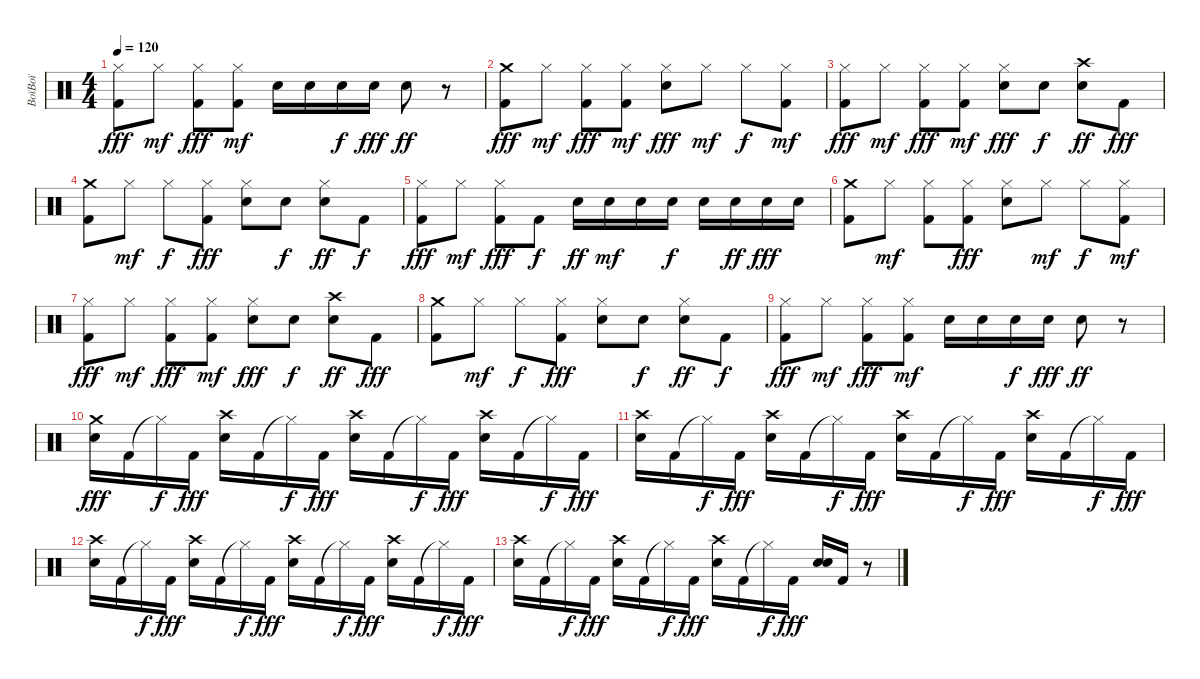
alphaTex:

\track ("BoïBoï" "BoïBoï") {instrument percussion}
\staff {score}
\articulation defaults
\ts (4 4)
\tempo 120
\clef neutral
\ks c
("Hi-Hat (closed)" "Kick (hit) 2").8{dy fff} "Hi-Hat (closed)".8{dy mf} ("Hi-Hat (closed)" "Kick (hit) 2").8{dy fff} ("Hi-Hat (closed)" "Kick (hit) 2").8{dy mf} "Electric Snare (hit)".16 "Electric Snare (hit)".16 "Electric Snare (hit)".16{dy f} "Electric Snare (hit)".16{dy fff} "Electric Snare (hit)".8{dy ff} r.8 |
("Crash medium (hit)" "Kick (hit) 2").8{dy fff} "Hi-Hat (closed)".8{dy mf} ("Hi-Hat (closed)" "Kick (hit) 2").8{dy fff} ("Hi-Hat (closed)" "Kick (hit) 2").8{dy mf} ("Hi-Hat (closed)" "Electric Snare (hit)").8{dy fff} "Hi-Hat (closed)".8{dy mf} "Hi-Hat (closed)".8{dy f} ("Hi-Hat (closed)" "Kick (hit) 2").8{dy mf} |
("Hi-Hat (closed)" "Kick (hit) 2").8{dy fff} "Hi-Hat (closed)".8{dy mf} ("Hi-Hat (closed)" "Kick (hit) 2").8{dy fff} ("Hi-Hat (closed)" "Kick (hit) 2").8{dy mf} ("Hi-Hat (closed)" "Electric Snare (hit)").8{dy fff} "Electric Snare (hit)".8{dy f} ("Crash high (hit)" "Electric Snare (hit)").8{dy ff} "Kick (hit) 2".8{dy fff} |
("Crash medium (hit)" "Kick (hit) 2").8 "Hi-Hat (closed)".8{dy mf} "Hi-Hat (closed)".8{dy f} ("Hi-Hat (closed)" "Kick (hit) 2").8{dy fff} ("Hi-Hat (closed)" "Electric Snare (hit)").8 "Electric Snare (hit)".8{dy f} ("Hi-Hat (closed)" "Electric Snare (hit)").8{dy ff} "Kick (hit) 2".8{dy f} |
("Hi-Hat (closed)" "Kick (hit) 2").8{dy fff} "Hi-Hat (closed)".8{dy mf} ("Hi-Hat (closed)" "Kick (hit) 2").8{dy fff} "Kick (hit) 2".8{dy f} "Electric Snare (hit)".16{dy ff} "Electric Snare (hit)".16{dy mf} "Electric Snare (hit)".16 "Electric Snare (hit)".16{dy f} "Electric Snare (hit)".16 "Electric Snare (hit)".16{dy ff} "Electric Snare (hit)".16{dy fff} "Electric Snare (hit)".16 |
("Crash medium (hit)" "Kick (hit) 2").8 "Hi-Hat (closed)".8{dy mf} ("Hi-Hat (closed)" "Kick (hit) 2").8 ("Hi-Hat (closed)" "Kick (hit) 2").8{dy fff} ("Hi-Hat (closed)" "Electric Snare (hit)").8 "Hi-Hat (closed)".8{dy mf} "Hi-Hat (closed)".8{dy f} ("Hi-Hat (closed)" "Kick (hit) 2").8{dy mf} |
("Hi-Hat (closed)" "Kick (hit) 2").8{dy fff} "Hi-Hat (closed)".8{dy mf} ("Hi-Hat (closed)" "Kick (hit) 2").8{dy fff} ("Hi-Hat (closed)" "Kick (hit) 2").8{dy mf} ("Hi-Hat (closed)" "Electric Snare (hit)").8{dy fff} "Electric Snare (hit)".8{dy f} ("Crash high (hit)" "Electric Snare (hit)").8{dy ff} "Kick (hit) 2".8{dy fff} |
("Crash medium (hit)" "Kick (hit) 2").8 "Hi-Hat (closed)".8{dy mf} "Hi-Hat (closed)".8{dy f} ("Hi-Hat (closed)" "Kick (hit) 2").8{dy fff} ("Hi-Hat (closed)" "Electric Snare (hit)").8 "Electric Snare (hit)".8{dy f} ("Hi-Hat (closed)" "Electric Snare (hit)").8{dy ff} "Kick (hit) 2".8{dy f} |
("Hi-Hat (closed)" "Kick (hit) 2").8{dy fff} "Hi-Hat (closed)".8{dy mf} ("Hi-Hat (closed)" "Kick (hit) 2").8{dy fff} ("Hi-Hat (closed)" "Kick (hit) 2").8{dy mf} "Electric Snare (hit)".16 "Electric Snare (hit)".16 "Electric Snare (hit)".16{dy f} "Electric Snare (hit)".16{dy fff} "Electric Snare (hit)".8{dy ff} r.8 |
("Crash medium (hit)" "Electric Snare (hit)").16{dy fff} "Kick (hit) 2".16 "Hi-Hat (closed)"{t}.16{dy f} "Kick (hit) 2".16{dy fff} ("Crash high (hit)" "Electric Snare (hit)").16 "Kick (hit) 2".16 "Hi-Hat (closed)"{t}.16{dy f} "Kick (hit) 2".16{dy fff} ("Crash high (hit)" "Electric Snare (hit)").16 "Kick (hit) 2".16 "Hi-Hat (closed)"{t}.16{dy f} "Kick (hit) 2".16{dy fff} ("Crash high (hit)" "Electric Snare (hit)").16 "Kick (hit) 2".16 "Hi-Hat (closed)"{t}.16{dy f} "Kick (hit) 2".16{dy fff} |
("Crash high (hit)" "Electric Snare (hit)").16 "Kick (hit) 2".16 "Hi-Hat (closed)"{t}.16{dy f} "Kick (hit) 2".16{dy fff} ("Crash high (hit)" "Electric Snare (hit)").16 "Kick (hit) 2".16 "Hi-Hat (closed)"{t}.16{dy f} "Kick (hit) 2".16{dy fff} ("Crash high (hit)" "Electric Snare (hit)").16 "Kick (hit) 2".16 "Hi-Hat (closed)"{t}.16{dy f} "Kick (hit) 2".16{dy fff} ("Crash high (hit)" "Electric Snare (hit)").16 "Kick (hit) 2".16 "Hi-Hat (closed)"{t}.16{dy f} "Kick (hit) 2".16{dy fff} |
("Crash high (hit)" "Electric Snare (hit)").16 "Kick (hit) 2".16 "Hi-Hat (closed)"{t}.16{dy f} "Kick (hit) 2".16{dy fff} ("Crash high (hit)" "Electric Snare (hit)").16 "Kick (hit) 2".16 "Hi-Hat (closed)"{t}.16{dy f} "Kick (hit) 2".16{dy fff} ("Crash high (hit)" "Electric Snare (hit)").16 "Kick (hit) 2".16 "Hi-Hat (closed)"{t}.16{dy f} "Kick (hit) 2".16{dy fff} ("Crash high (hit)" "Electric Snare (hit)").16 "Kick (hit) 2".16 "Hi-Hat (closed)"{t}.16{dy f} "Kick (hit) 2".16{dy fff} |
("Crash high (hit)" "Electric Snare (hit)").16 "Kick (hit) 2".16 "Hi-Hat (closed)"{t}.16{dy f} "Kick (hit) 2".16{dy fff} ("Crash high (hit)" "Electric Snare (hit)").16 "Kick (hit) 2".16 "Hi-Hat (closed)"{t}.16{dy f} "Kick (hit) 2".16{dy fff} ("Crash high (hit)" "Electric Snare (hit)").16 "Kick (hit) 2".16 "Hi-Hat (closed)"{t}.16{dy f} "Kick (hit) 2".16{dy fff} ("Electric Snare (hit)" "Snare (hit) 2").16 "Kick (hit) 2".16 r.8
